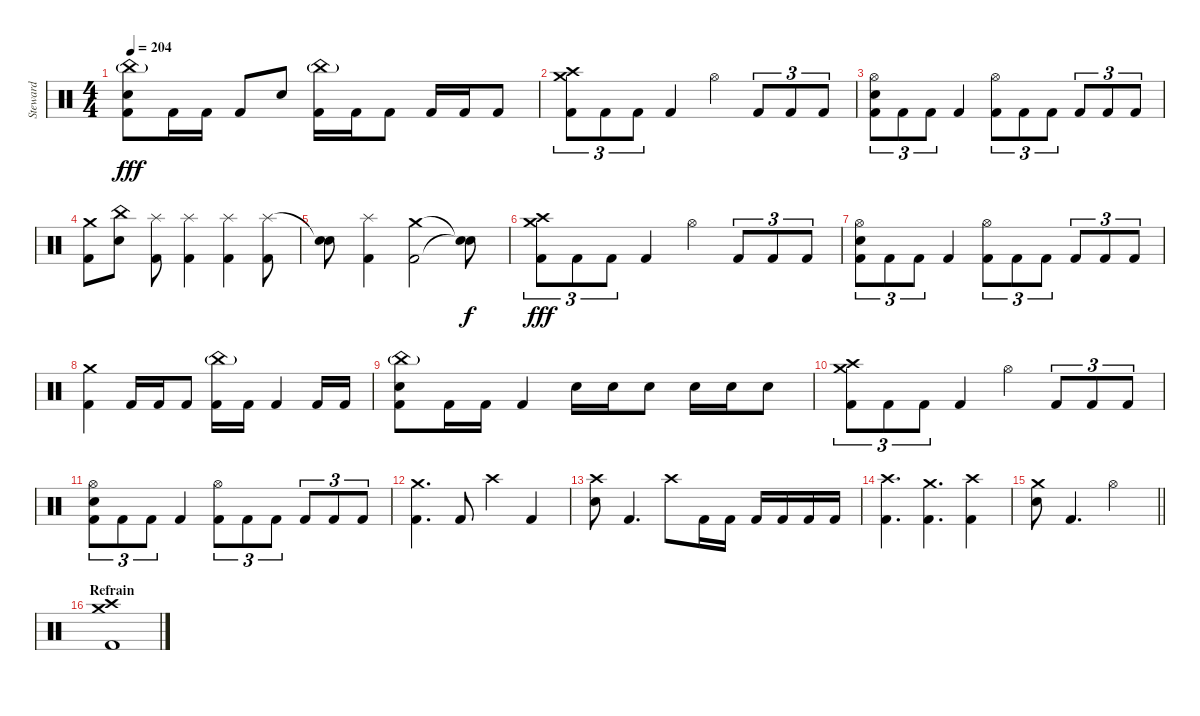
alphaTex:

\track ("Steward" "Steward") {instrument percussion}
\staff {score}
\articulation defaults
\ts (4 4)
\tempo 204
\clef neutral
\ks c
("China (hit)"{g} "Electric Snare (hit)" "Kick (hit) 2").8{dy fff} "Kick (hit) 2".16 "Kick (hit) 2".16 "Kick (hit) 2".8 "Electric Snare (hit)".8 ("China (hit)"{g} "Kick (hit) 2").16 "Kick (hit) 2".16 "Kick (hit) 2".8 "Kick (hit) 2".16 "Kick (hit) 2".16 "Kick (hit) 2".8 |
("Crash medium (hit)" "Crash high (hit)" "Kick (hit) 2").8{tu (3 2)} "Kick (hit) 2".8{tu (3 2)} "Kick (hit) 2".8{tu (3 2)} "Kick (hit) 2".4 "Hi-Hat (open)".4 "Kick (hit) 2".8{tu (3 2)} "Kick (hit) 2".8{tu (3 2)} "Kick (hit) 2".8{tu (3 2)} |
("Hi-Hat (open)" "Electric Snare (hit)" "Kick (hit) 2").8{tu (3 2)} "Kick (hit) 2".8{tu (3 2)} "Kick (hit) 2".8{tu (3 2)} "Kick (hit) 2".4 ("Hi-Hat (open)" "Kick (hit) 2").8{tu (3 2)} "Kick (hit) 2".8{tu (3 2)} "Kick (hit) 2".8{tu (3 2)} "Kick (hit) 2".8{tu (3 2)} "Kick (hit) 2".8{tu (3 2)} "Kick (hit) 2".8{tu (3 2)} |
("Crash medium (hit)" "Kick (hit) 2").8 ("China (hit)" "Electric Snare (hit)").8 ("Splash (hit)" "Kick (hit) 2").8 ("Splash (hit)" "Kick (hit) 2").4 ("Splash (hit)" "Kick (hit) 2").4 ("Splash (hit)" "Kick (hit) 2").8 |
("Snare (hit)"{t} "Electric Snare (hit)").8 ("Splash (hit)" "Kick (hit) 2").4 ("Crash medium (hit)" "Kick (hit) 2").2 ("Snare (hit)"{t} "Snare (hit)"{t}).8{dy f} |
("Crash medium (hit)" "Crash high (hit)" "Kick (hit) 2").8{tu (3 2) dy fff} "Kick (hit) 2".8{tu (3 2)} "Kick (hit) 2".8{tu (3 2)} "Kick (hit) 2".4 "Hi-Hat (open)".4 "Kick (hit) 2".8{tu (3 2)} "Kick (hit) 2".8{tu (3 2)} "Kick (hit) 2".8{tu (3 2)} |
("Hi-Hat (open)" "Electric Snare (hit)" "Kick (hit) 2").8{tu (3 2)} "Kick (hit) 2".8{tu (3 2)} "Kick (hit) 2".8{tu (3 2)} "Kick (hit) 2".4 ("Hi-Hat (open)" "Kick (hit) 2").8{tu (3 2)} "Kick (hit) 2".8{tu (3 2)} "Kick (hit) 2".8{tu (3 2)} "Kick (hit) 2".8{tu (3 2)} "Kick (hit) 2".8{tu (3 2)} "Kick (hit) 2".8{tu (3 2)} |
("Crash medium (hit)" "Kick (hit) 2").4 "Kick (hit) 2".16 "Kick (hit) 2".16 "Kick (hit) 2".8 ("China (hit)"{g} "Kick (hit) 2").16 "Kick (hit) 2".16 "Kick (hit) 2".4 "Kick (hit) 2".16 "Kick (hit) 2".16 |
("China (hit)"{g} "Electric Snare (hit)" "Kick (hit) 2").8 "Kick (hit) 2".16 "Kick (hit) 2".16 "Kick (hit) 2".4 "Electric Snare (hit)".16 "Electric Snare (hit)".16 "Electric Snare (hit)".8 "Electric Snare (hit)".16 "Electric Snare (hit)".16 "Electric Snare (hit)".8 |
("Crash medium (hit)" "Crash high (hit)" "Kick (hit) 2").8{tu (3 2)} "Kick (hit) 2".8{tu (3 2)} "Kick (hit) 2".8{tu (3 2)} "Kick (hit) 2".4 "Hi-Hat (open)".4 "Kick (hit) 2".8{tu (3 2)} "Kick (hit) 2".8{tu (3 2)} "Kick (hit) 2".8{tu (3 2)} |
("Hi-Hat (open)" "Electric Snare (hit)" "Kick (hit) 2").8{tu (3 2)} "Kick (hit) 2".8{tu (3 2)} "Kick (hit) 2".8{tu (3 2)} "Kick (hit) 2".4 ("Hi-Hat (open)" "Kick (hit) 2").8{tu (3 2)} "Kick (hit) 2".8{tu (3 2)} "Kick (hit) 2".8{tu (3 2)} "Kick (hit) 2".8{tu (3 2)} "Kick (hit) 2".8{tu (3 2)} "Kick (hit) 2".8{tu (3 2)} |
("Crash medium (hit)" "Kick (hit) 2").4{d} "Kick (hit) 2".8 "Crash high (hit)".4 "Kick (hit) 2".4 |
("Crash high (hit)" "Electric Snare (hit)").8 "Kick (hit) 2".4{d} "Crash high (hit)".8 "Kick (hit) 2".16 "Kick (hit) 2".16 "Kick (hit) 2".16 "Kick (hit) 2".16 "Kick (hit) 2".16 "Kick (hit) 2".16 |
("Crash high (hit)" "Kick (hit) 2").4{d} ("Crash medium (hit)" "Kick (hit) 2").4{d} ("Crash high (hit)" "Kick (hit) 2").4 |
\barLineRight lightlight
("Crash medium (hit)" "Electric Snare (hit)").8 "Kick (hit) 2".4{d} "Hi-Hat (open)".2 |
\section ("" "Refrain")
("Crash medium (hit)" "Crash high (hit)" "Kick (hit) 2").1
